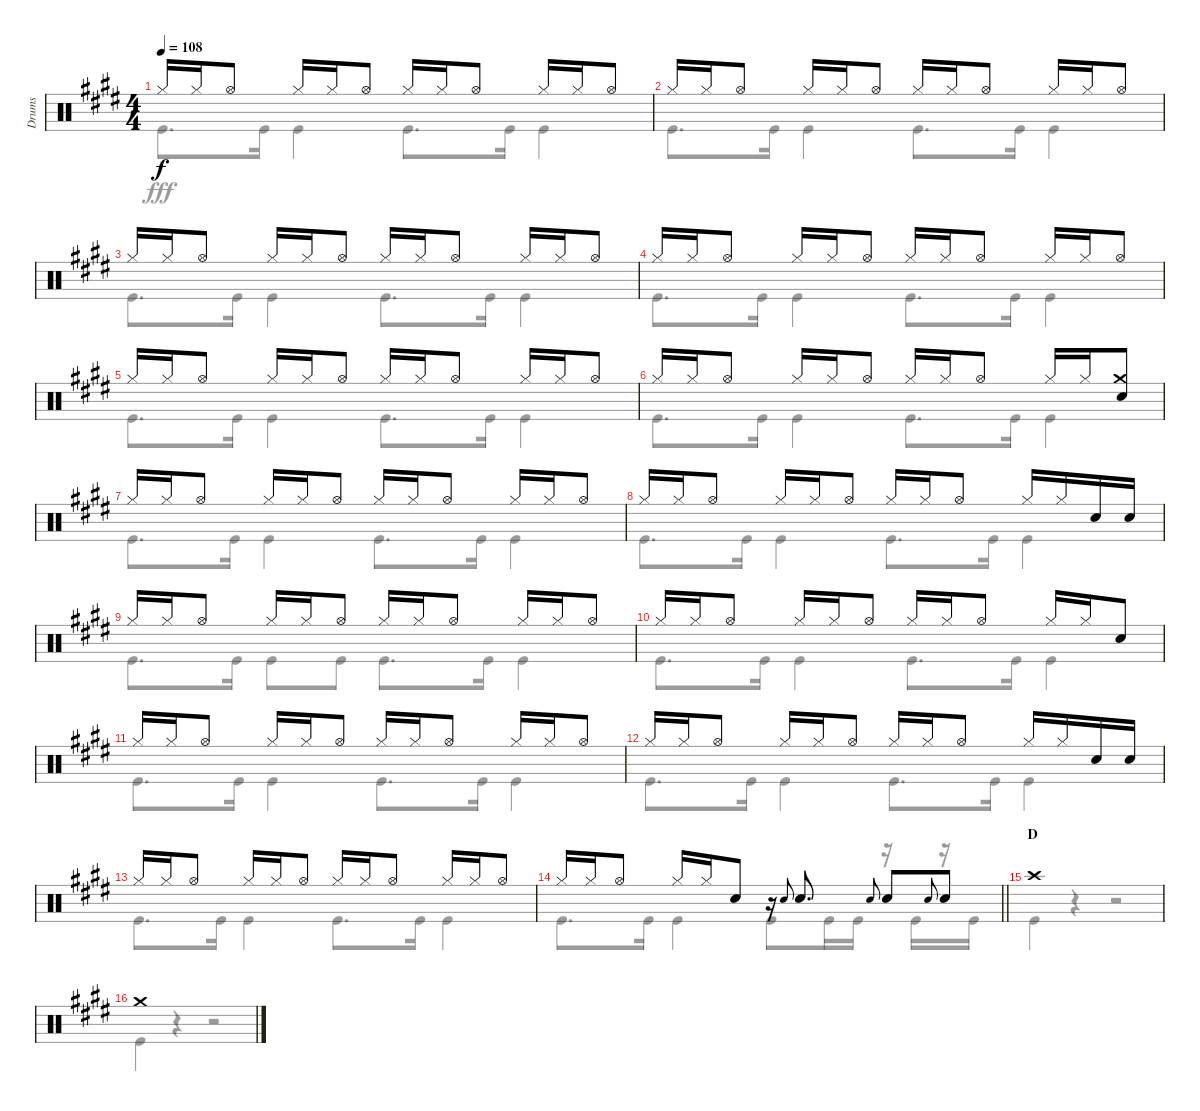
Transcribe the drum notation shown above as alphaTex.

\track ("Drums" "Drums") {instrument percussion}
\staff {score}
\articulation defaults
\voice
\ts (4 4)
\tempo 108
\clef neutral
\ks e "Hi-Hat (closed)".16{dy f} "Hi-Hat (closed)".16 "Hi-Hat (open)".8 "Hi-Hat (closed)".16 "Hi-Hat (closed)".16 "Hi-Hat (open)".8 "Hi-Hat (closed)".16 "Hi-Hat (closed)".16 "Hi-Hat (open)".8 "Hi-Hat (closed)".16 "Hi-Hat (closed)".16 "Hi-Hat (open)".8
|
"Hi-Hat (closed)".16 "Hi-Hat (closed)".16 "Hi-Hat (open)".8 "Hi-Hat (closed)".16 "Hi-Hat (closed)".16 "Hi-Hat (open)".8 "Hi-Hat (closed)".16 "Hi-Hat (closed)".16 "Hi-Hat (open)".8 "Hi-Hat (closed)".16 "Hi-Hat (closed)".16 "Hi-Hat (open)".8 |
"Hi-Hat (closed)".16 "Hi-Hat (closed)".16 "Hi-Hat (open)".8 "Hi-Hat (closed)".16 "Hi-Hat (closed)".16 "Hi-Hat (open)".8 "Hi-Hat (closed)".16 "Hi-Hat (closed)".16 "Hi-Hat (open)".8 "Hi-Hat (closed)".16 "Hi-Hat (closed)".16 "Hi-Hat (open)".8 |
"Hi-Hat (closed)".16 "Hi-Hat (closed)".16 "Hi-Hat (open)".8 "Hi-Hat (closed)".16 "Hi-Hat (closed)".16 "Hi-Hat (open)".8 "Hi-Hat (closed)".16 "Hi-Hat (closed)".16 "Hi-Hat (open)".8 "Hi-Hat (closed)".16 "Hi-Hat (closed)".16 "Hi-Hat (open)".8 |
"Hi-Hat (closed)".16 "Hi-Hat (closed)".16 "Hi-Hat (open)".8 "Hi-Hat (closed)".16 "Hi-Hat (closed)".16 "Hi-Hat (open)".8 "Hi-Hat (closed)".16 "Hi-Hat (closed)".16 "Hi-Hat (open)".8 "Hi-Hat (closed)".16 "Hi-Hat (closed)".16 "Hi-Hat (open)".8 |
"Hi-Hat (closed)".16 "Hi-Hat (closed)".16 "Hi-Hat (open)".8 "Hi-Hat (closed)".16 "Hi-Hat (closed)".16 "Hi-Hat (open)".8 "Hi-Hat (closed)".16 "Hi-Hat (closed)".16 "Hi-Hat (open)".8 "Hi-Hat (closed)".16 "Hi-Hat (closed)".16 ("Crash medium (hit)" "Snare (hit) 2").8 |
"Hi-Hat (closed)".16 "Hi-Hat (closed)".16 "Hi-Hat (open)".8 "Hi-Hat (closed)".16 "Hi-Hat (closed)".16 "Hi-Hat (open)".8 "Hi-Hat (closed)".16 "Hi-Hat (closed)".16 "Hi-Hat (open)".8 "Hi-Hat (closed)".16 "Hi-Hat (closed)".16 "Hi-Hat (open)".8 |
"Hi-Hat (closed)".16 "Hi-Hat (closed)".16 "Hi-Hat (open)".8 "Hi-Hat (closed)".16 "Hi-Hat (closed)".16 "Hi-Hat (open)".8 "Hi-Hat (closed)".16 "Hi-Hat (closed)".16 "Hi-Hat (open)".8 "Hi-Hat (closed)".16 "Hi-Hat (closed)".16 "Snare (hit) 2".16 "Snare (hit) 2".16 |
"Hi-Hat (closed)".16 "Hi-Hat (closed)".16 "Hi-Hat (open)".8 "Hi-Hat (closed)".16 "Hi-Hat (closed)".16 "Hi-Hat (open)".8 "Hi-Hat (closed)".16 "Hi-Hat (closed)".16 "Hi-Hat (open)".8 "Hi-Hat (closed)".16 "Hi-Hat (closed)".16 "Hi-Hat (open)".8 |
"Hi-Hat (closed)".16 "Hi-Hat (closed)".16 "Hi-Hat (open)".8 "Hi-Hat (closed)".16 "Hi-Hat (closed)".16 "Hi-Hat (open)".8 "Hi-Hat (closed)".16 "Hi-Hat (closed)".16 "Hi-Hat (open)".8 "Hi-Hat (closed)".16 "Hi-Hat (closed)".16 "Snare (hit) 2".8 |
"Hi-Hat (closed)".16 "Hi-Hat (closed)".16 "Hi-Hat (open)".8 "Hi-Hat (closed)".16 "Hi-Hat (closed)".16 "Hi-Hat (open)".8 "Hi-Hat (closed)".16 "Hi-Hat (closed)".16 "Hi-Hat (open)".8 "Hi-Hat (closed)".16 "Hi-Hat (closed)".16 "Hi-Hat (open)".8 |
"Hi-Hat (closed)".16 "Hi-Hat (closed)".16 "Hi-Hat (open)".8 "Hi-Hat (closed)".16 "Hi-Hat (closed)".16 "Hi-Hat (open)".8 "Hi-Hat (closed)".16 "Hi-Hat (closed)".16 "Hi-Hat (open)".8 "Hi-Hat (closed)".16 "Hi-Hat (closed)".16 "Snare (hit) 2".16 "Snare (hit) 2".16 |
"Hi-Hat (closed)".16 "Hi-Hat (closed)".16 "Hi-Hat (open)".8 "Hi-Hat (closed)".16 "Hi-Hat (closed)".16 "Hi-Hat (open)".8 "Hi-Hat (closed)".16 "Hi-Hat (closed)".16 "Hi-Hat (open)".8 "Hi-Hat (closed)".16 "Hi-Hat (closed)".16 "Hi-Hat (open)".8 |
\barLineRight lightlight "Hi-Hat (closed)".16 "Hi-Hat (closed)".16 "Hi-Hat (open)".8 "Hi-Hat (closed)".16 "Hi-Hat (closed)".16 "Snare (hit) 2".8
r.16 "Snare (hit) 2".8{gr onbeat} "Snare (hit) 2".8{d} "Snare (hit) 2".8{gr onbeat} "Snare (hit) 2".8 "Snare (hit) 2".8{gr onbeat} "Snare (hit) 2".8 |
\section ("" "D")
"Crash high (hit)".1 |
"Crash medium (hit)".1
\voice
\clef neutral
\ottava regular
\simile none
\ks e "Kick (hit)".8{d dy fff} "Kick (hit)".16 "Kick (hit)".4 "Kick (hit)".8{d} "Kick (hit)".16 "Kick (hit)".4
|
"Kick (hit)".8{d} "Kick (hit)".16 "Kick (hit)".4 "Kick (hit)".8{d} "Kick (hit)".16 "Kick (hit)".4 |
"Kick (hit)".8{d} "Kick (hit)".16 "Kick (hit)".4 "Kick (hit)".8{d} "Kick (hit)".16 "Kick (hit)".4 |
"Kick (hit)".8{d} "Kick (hit)".16 "Kick (hit)".4 "Kick (hit)".8{d} "Kick (hit)".16 "Kick (hit)".4 |
"Kick (hit)".8{d} "Kick (hit)".16 "Kick (hit)".4 "Kick (hit)".8{d} "Kick (hit)".16 "Kick (hit)".4 |
"Kick (hit)".8{d} "Kick (hit)".16 "Kick (hit)".4 "Kick (hit)".8{d} "Kick (hit)".16 "Kick (hit)".4 |
"Kick (hit)".8{d} "Kick (hit)".16 "Kick (hit)".4 "Kick (hit)".8{d} "Kick (hit)".16 "Kick (hit)".4 |
"Kick (hit)".8{d} "Kick (hit)".16 "Kick (hit)".4 "Kick (hit)".8{d} "Kick (hit)".16 "Kick (hit)".4 |
"Kick (hit)".8{d} "Kick (hit)".16 "Kick (hit)".8 "Kick (hit)".8 "Kick (hit)".8{d} "Kick (hit)".16 "Kick (hit)".4 |
"Kick (hit)".8{d} "Kick (hit)".16 "Kick (hit)".4 "Kick (hit)".8{d} "Kick (hit)".16 "Kick (hit)".4 |
"Kick (hit)".8{d} "Kick (hit)".16 "Kick (hit)".4 "Kick (hit)".8{d} "Kick (hit)".16 "Kick (hit)".4 |
"Kick (hit)".8{d} "Kick (hit)".16 "Kick (hit)".4 "Kick (hit)".8{d} "Kick (hit)".16 "Kick (hit)".4 |
"Kick (hit)".8{d} "Kick (hit)".16 "Kick (hit)".4 "Kick (hit)".8{d} "Kick (hit)".16 "Kick (hit)".4 |
\barLineRight lightlight "Kick (hit)".8{d} "Kick (hit)".16 "Kick (hit)".4 "Kick (hit)".8 "Kick (hit)".16 "Kick (hit)".16
r.16 "Kick (hit)".16 r.16 "Kick (hit)".16 |
"Kick (hit)".4 r.4 r.2 |
"Kick (hit)".4 r.4 r.2
